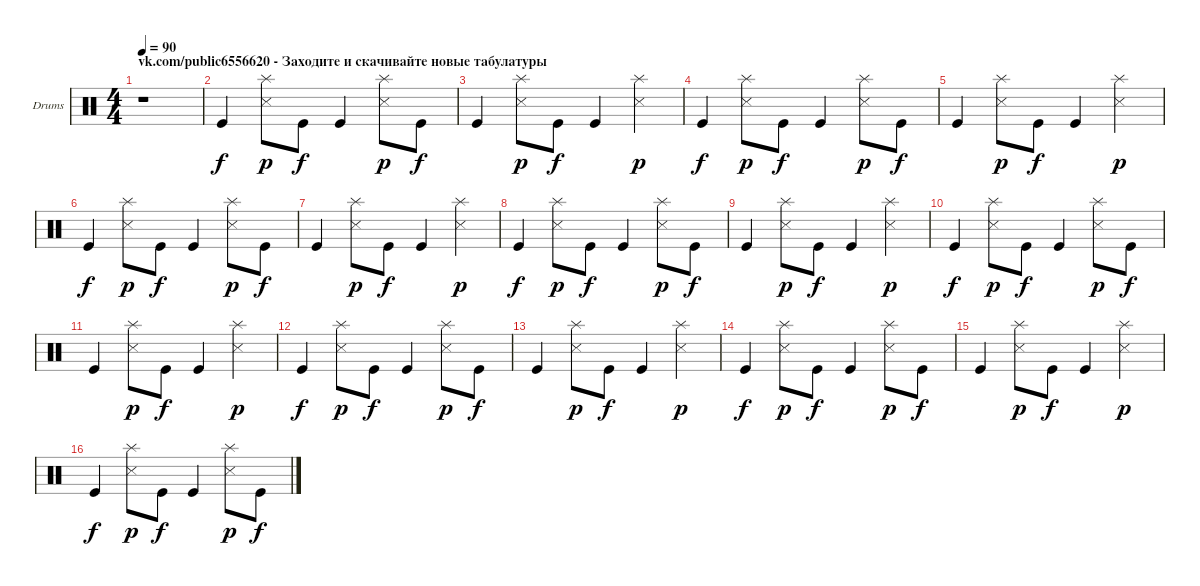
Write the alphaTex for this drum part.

\bracketExtendMode groupsimilarinstruments
\firstSystemTrackNameOrientation horizontal
\otherSystemsTrackNameOrientation horizontal
\track ("Ударные" "Drums") {instrument percussion}
\staff {score}
\articulation defaults
\ts (4 4)
\section ("" "vk.com/public6556620 - Заходите и скачивайте новые табулатуры")
\tempo 90
\clef neutral
\ks c
r.1{dy f} |
"Kick (hit)".4 ("Splash (hit)" "Snare (side stick) 3").8{dy p} "Kick (hit)".8{dy f} "Kick (hit)".4 ("Splash (hit)" "Snare (side stick) 3").8{dy p} "Kick (hit)".8{dy f} |
"Kick (hit)".4 ("Splash (hit)" "Snare (side stick) 3").8{dy p} "Kick (hit)".8{dy f} "Kick (hit)".4 ("Splash (hit)" "Snare (side stick) 3").4{dy p} |
"Kick (hit)".4{dy f} ("Splash (hit)" "Snare (side stick) 3").8{dy p} "Kick (hit)".8{dy f} "Kick (hit)".4 ("Splash (hit)" "Snare (side stick) 3").8{dy p} "Kick (hit)".8{dy f} |
"Kick (hit)".4 ("Splash (hit)" "Snare (side stick) 3").8{dy p} "Kick (hit)".8{dy f} "Kick (hit)".4 ("Splash (hit)" "Snare (side stick) 3").4{dy p} |
"Kick (hit)".4{dy f} ("Splash (hit)" "Snare (side stick) 3").8{dy p} "Kick (hit)".8{dy f} "Kick (hit)".4 ("Splash (hit)" "Snare (side stick) 3").8{dy p} "Kick (hit)".8{dy f} |
"Kick (hit)".4 ("Splash (hit)" "Snare (side stick) 3").8{dy p} "Kick (hit)".8{dy f} "Kick (hit)".4 ("Splash (hit)" "Snare (side stick) 3").4{dy p} |
"Kick (hit)".4{dy f} ("Splash (hit)" "Snare (side stick) 3").8{dy p} "Kick (hit)".8{dy f} "Kick (hit)".4 ("Splash (hit)" "Snare (side stick) 3").8{dy p} "Kick (hit)".8{dy f} |
"Kick (hit)".4 ("Splash (hit)" "Snare (side stick) 3").8{dy p} "Kick (hit)".8{dy f} "Kick (hit)".4 ("Splash (hit)" "Snare (side stick) 3").4{dy p} |
"Kick (hit)".4{dy f} ("Splash (hit)" "Snare (side stick) 3").8{dy p} "Kick (hit)".8{dy f} "Kick (hit)".4 ("Splash (hit)" "Snare (side stick) 3").8{dy p} "Kick (hit)".8{dy f} |
"Kick (hit)".4 ("Splash (hit)" "Snare (side stick) 3").8{dy p} "Kick (hit)".8{dy f} "Kick (hit)".4 ("Splash (hit)" "Snare (side stick) 3").4{dy p} |
"Kick (hit)".4{dy f} ("Splash (hit)" "Snare (side stick) 3").8{dy p} "Kick (hit)".8{dy f} "Kick (hit)".4 ("Splash (hit)" "Snare (side stick) 3").8{dy p} "Kick (hit)".8{dy f} |
"Kick (hit)".4 ("Splash (hit)" "Snare (side stick) 3").8{dy p} "Kick (hit)".8{dy f} "Kick (hit)".4 ("Splash (hit)" "Snare (side stick) 3").4{dy p} |
"Kick (hit)".4{dy f} ("Splash (hit)" "Snare (side stick) 3").8{dy p} "Kick (hit)".8{dy f} "Kick (hit)".4 ("Splash (hit)" "Snare (side stick) 3").8{dy p} "Kick (hit)".8{dy f} |
"Kick (hit)".4 ("Splash (hit)" "Snare (side stick) 3").8{dy p} "Kick (hit)".8{dy f} "Kick (hit)".4 ("Splash (hit)" "Snare (side stick) 3").4{dy p} |
"Kick (hit)".4{dy f} ("Splash (hit)" "Snare (side stick) 3").8{dy p} "Kick (hit)".8{dy f} "Kick (hit)".4 ("Splash (hit)" "Snare (side stick) 3").8{dy p} "Kick (hit)".8{dy f}
